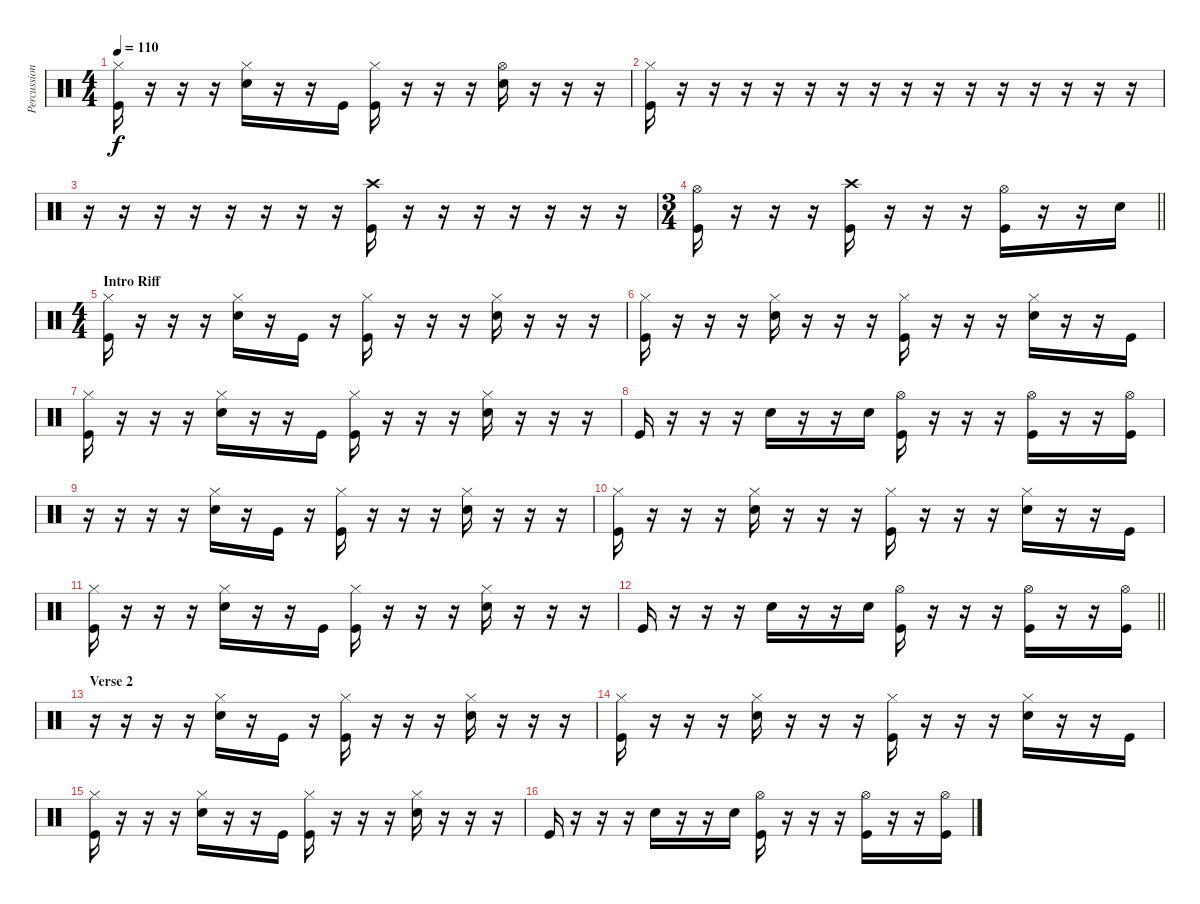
\track ("Percussion" "Percussion") {instrument percussion}
\staff {score}
\articulation defaults
\ts (4 4)
\tempo 110
\clef neutral
\ks c
("Hi-Hat (closed)" "Kick (hit)").16{dy f} r.16 r.16 r.16 ("Hi-Hat (closed)" "Snare (hit) 2").16 r.16 r.16 "Kick (hit)".16 ("Hi-Hat (closed)" "Kick (hit)").16 r.16 r.16 r.16 ("Hi-Hat (open)" "Snare (hit) 2").16 r.16 r.16 r.16 |
("Hi-Hat (closed)" "Kick (hit)").16 r.16 r.16 r.16 r.16 r.16 r.16 r.16 r.16 r.16 r.16 r.16 r.16 r.16 r.16 r.16 |
r.16 r.16 r.16 r.16 r.16 r.16 r.16 r.16 ("Crash high (hit)" "Kick (hit)").16 r.16 r.16 r.16 r.16 r.16 r.16 r.16 |
\ts (3 4)
\barLineRight lightlight
("Hi-Hat (open)" "Kick (hit)").16 r.16 r.16 r.16 ("Crash high (hit)" "Kick (hit)").16 r.16 r.16 r.16 ("Hi-Hat (open)" "Kick (hit)").16 r.16 r.16 "Snare (hit) 2".16 |
\ts (4 4)
\section ("" "Intro Riff ")
("Hi-Hat (closed)" "Kick (hit)").16 r.16 r.16 r.16 ("Hi-Hat (closed)" "Snare (hit) 2").16 r.16 "Kick (hit)".16 r.16 ("Hi-Hat (closed)" "Kick (hit)").16 r.16 r.16 r.16 ("Hi-Hat (closed)" "Snare (hit) 2").16 r.16 r.16 r.16 |
("Hi-Hat (closed)" "Kick (hit)").16 r.16 r.16 r.16 ("Hi-Hat (closed)" "Snare (hit) 2").16 r.16 r.16 r.16 ("Hi-Hat (closed)" "Kick (hit)").16 r.16 r.16 r.16 ("Hi-Hat (closed)" "Snare (hit) 2").16 r.16 r.16 "Kick (hit)".16 |
("Hi-Hat (closed)" "Kick (hit)").16 r.16 r.16 r.16 ("Hi-Hat (closed)" "Snare (hit) 2").16 r.16 r.16 "Kick (hit)".16 ("Hi-Hat (closed)" "Kick (hit)").16 r.16 r.16 r.16 ("Hi-Hat (closed)" "Snare (hit) 2").16 r.16 r.16 r.16 |
"Kick (hit)".16 r.16 r.16 r.16 "Snare (hit) 2".16 r.16 r.16 "Snare (hit) 2".16 ("Hi-Hat (open)" "Kick (hit)").16 r.16 r.16 r.16 ("Hi-Hat (open)" "Kick (hit)").16 r.16 r.16 ("Hi-Hat (open)" "Kick (hit)").16 |
r.16 r.16 r.16 r.16 ("Hi-Hat (closed)" "Snare (hit) 2").16 r.16 "Kick (hit)".16 r.16 ("Hi-Hat (closed)" "Kick (hit)").16 r.16 r.16 r.16 ("Hi-Hat (closed)" "Snare (hit) 2").16 r.16 r.16 r.16 |
("Hi-Hat (closed)" "Kick (hit)").16 r.16 r.16 r.16 ("Hi-Hat (closed)" "Snare (hit) 2").16 r.16 r.16 r.16 ("Hi-Hat (closed)" "Kick (hit)").16 r.16 r.16 r.16 ("Hi-Hat (closed)" "Snare (hit) 2").16 r.16 r.16 "Kick (hit)".16 |
("Hi-Hat (closed)" "Kick (hit)").16 r.16 r.16 r.16 ("Hi-Hat (closed)" "Snare (hit) 2").16 r.16 r.16 "Kick (hit)".16 ("Hi-Hat (closed)" "Kick (hit)").16 r.16 r.16 r.16 ("Hi-Hat (closed)" "Snare (hit) 2").16 r.16 r.16 r.16 |
\barLineRight lightlight "Kick (hit)".16
r.16 r.16 r.16 "Snare (hit) 2".16 r.16 r.16 "Snare (hit) 2".16 ("Hi-Hat (open)" "Kick (hit)").16 r.16 r.16 r.16 ("Hi-Hat (open)" "Kick (hit)").16 r.16 r.16 ("Hi-Hat (open)" "Kick (hit)").16 |
\section ("" "Verse 2")
r.16 r.16 r.16 r.16 ("Hi-Hat (closed)" "Snare (hit) 2").16 r.16 "Kick (hit)".16 r.16 ("Hi-Hat (closed)" "Kick (hit)").16 r.16 r.16 r.16 ("Hi-Hat (closed)" "Snare (hit) 2").16 r.16 r.16 r.16 |
("Hi-Hat (closed)" "Kick (hit)").16 r.16 r.16 r.16 ("Hi-Hat (closed)" "Snare (hit) 2").16 r.16 r.16 r.16 ("Hi-Hat (closed)" "Kick (hit)").16 r.16 r.16 r.16 ("Hi-Hat (closed)" "Snare (hit) 2").16 r.16 r.16 "Kick (hit)".16 |
("Hi-Hat (closed)" "Kick (hit)").16 r.16 r.16 r.16 ("Hi-Hat (closed)" "Snare (hit) 2").16 r.16 r.16 "Kick (hit)".16 ("Hi-Hat (closed)" "Kick (hit)").16 r.16 r.16 r.16 ("Hi-Hat (closed)" "Snare (hit) 2").16 r.16 r.16 r.16 |
"Kick (hit)".16 r.16 r.16 r.16 "Snare (hit) 2".16 r.16 r.16 "Snare (hit) 2".16 ("Hi-Hat (open)" "Kick (hit)").16 r.16 r.16 r.16 ("Hi-Hat (open)" "Kick (hit)").16 r.16 r.16 ("Hi-Hat (open)" "Kick (hit)").16
